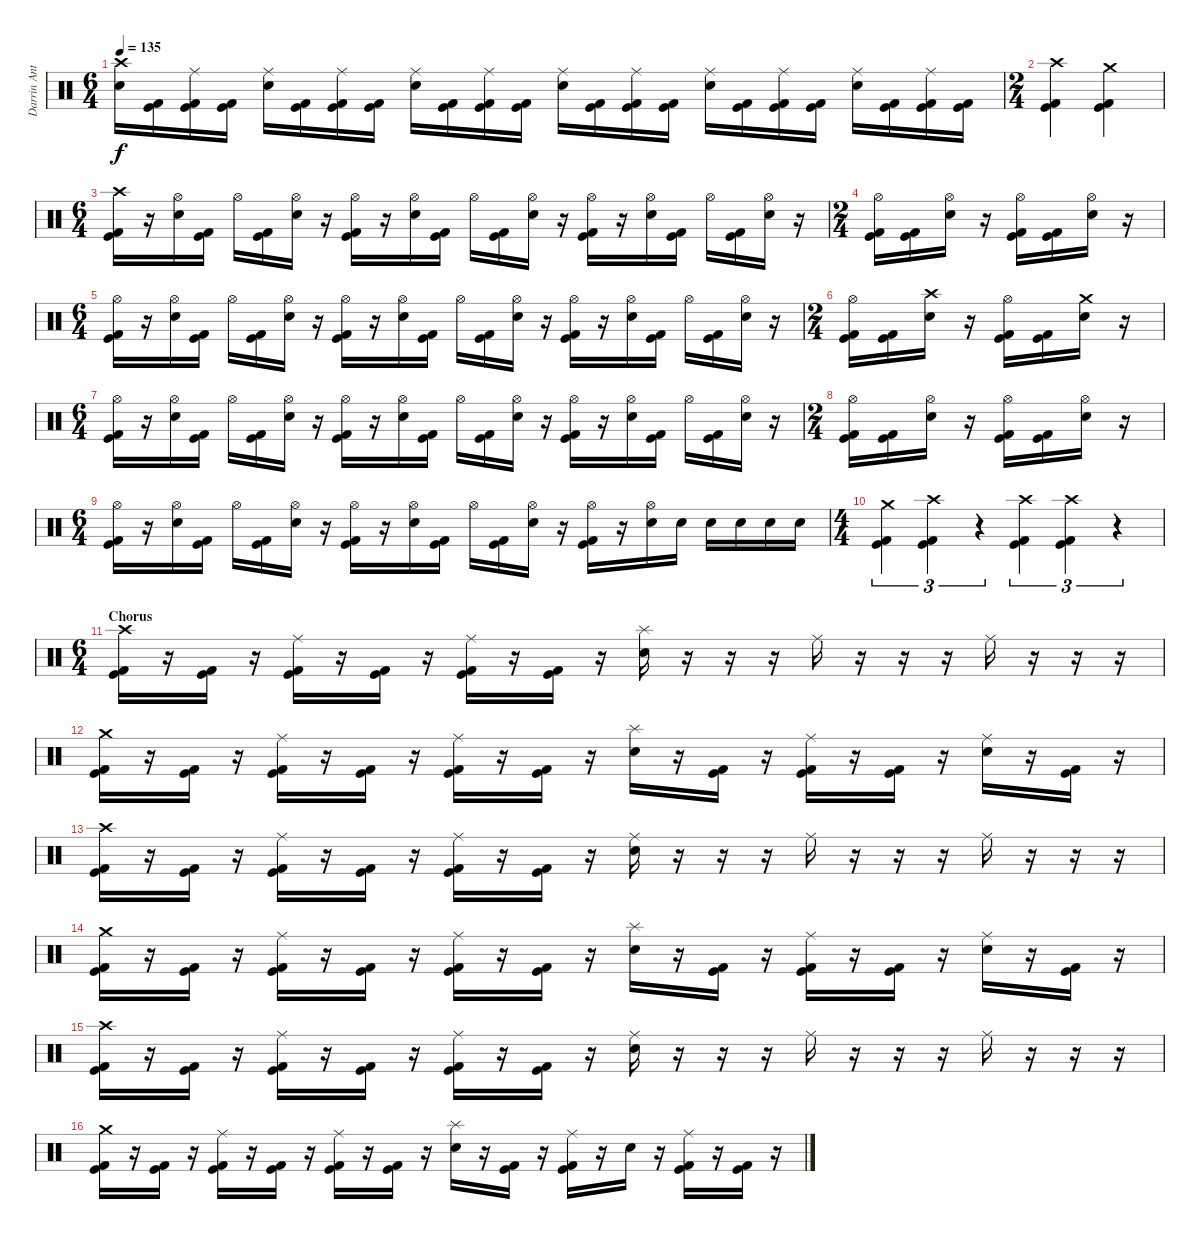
\track ("Darrin Anthony" "Darrin Ant") {instrument percussion}
\staff {score}
\articulation defaults
\ts (6 4)
\tempo 135
\clef neutral
\ks c
("Crash high (hit)" "Electric Snare (hit)").16{dy f} ("Kick (hit)" "Kick (hit) 2").16 ("Ride (middle)" "Kick (hit)" "Kick (hit) 2").16 ("Kick (hit)" "Kick (hit) 2").16 ("Ride (middle)" "Electric Snare (hit)").16 ("Kick (hit)" "Kick (hit) 2").16 ("Ride (middle)" "Kick (hit)" "Kick (hit) 2").16 ("Kick (hit)" "Kick (hit) 2").16 ("Ride (middle)" "Electric Snare (hit)").16 ("Kick (hit)" "Kick (hit) 2").16 ("Ride (middle)" "Kick (hit)" "Kick (hit) 2").16 ("Kick (hit)" "Kick (hit) 2").16 ("Ride (middle)" "Electric Snare (hit)").16 ("Kick (hit)" "Kick (hit) 2").16 ("Ride (middle)" "Kick (hit)" "Kick (hit) 2").16 ("Kick (hit)" "Kick (hit) 2").16 ("Ride (middle)" "Electric Snare (hit)").16 ("Kick (hit)" "Kick (hit) 2").16 ("Ride (middle)" "Kick (hit)" "Kick (hit) 2").16 ("Kick (hit)" "Kick (hit) 2").16 ("Ride (middle)" "Electric Snare (hit)").16 ("Kick (hit)" "Kick (hit) 2").16 ("Ride (middle)" "Kick (hit)" "Kick (hit) 2").16 ("Kick (hit)" "Kick (hit) 2").16 |
\ts (2 4)
("Crash high (hit)" "Kick (hit)" "Kick (hit) 2").4 ("Crash medium (hit)" "Kick (hit)" "Kick (hit) 2").4 |
\ts (6 4)
("Crash high (hit)" "Kick (hit)" "Kick (hit) 2").16 r.16 ("Hi-Hat (open)" "Electric Snare (hit)").16 ("Kick (hit)" "Kick (hit) 2").16 "Hi-Hat (open)".16 ("Kick (hit)" "Kick (hit) 2").16 ("Hi-Hat (open)" "Electric Snare (hit)").16 r.16 ("Hi-Hat (open)" "Kick (hit)" "Kick (hit) 2").16 r.16 ("Hi-Hat (open)" "Electric Snare (hit)").16 ("Kick (hit)" "Kick (hit) 2").16 "Hi-Hat (open)".16 ("Kick (hit)" "Kick (hit) 2").16 ("Hi-Hat (open)" "Electric Snare (hit)").16 r.16 ("Hi-Hat (open)" "Kick (hit)" "Kick (hit) 2").16 r.16 ("Hi-Hat (open)" "Electric Snare (hit)").16 ("Kick (hit)" "Kick (hit) 2").16 "Hi-Hat (open)".16 ("Kick (hit)" "Kick (hit) 2").16 ("Hi-Hat (open)" "Electric Snare (hit)").16 r.16 |
\ts (2 4)
("Hi-Hat (open)" "Kick (hit)" "Kick (hit) 2").16 ("Kick (hit)" "Kick (hit) 2").16 ("Hi-Hat (open)" "Electric Snare (hit)").16 r.16 ("Hi-Hat (open)" "Kick (hit)" "Kick (hit) 2").16 ("Kick (hit)" "Kick (hit) 2").16 ("Hi-Hat (open)" "Electric Snare (hit)").16 r.16 |
\ts (6 4)
("Hi-Hat (open)" "Kick (hit)" "Kick (hit) 2").16 r.16 ("Hi-Hat (open)" "Electric Snare (hit)").16 ("Kick (hit)" "Kick (hit) 2").16 "Hi-Hat (open)".16 ("Kick (hit)" "Kick (hit) 2").16 ("Hi-Hat (open)" "Electric Snare (hit)").16 r.16 ("Hi-Hat (open)" "Kick (hit)" "Kick (hit) 2").16 r.16 ("Hi-Hat (open)" "Electric Snare (hit)").16 ("Kick (hit)" "Kick (hit) 2").16 "Hi-Hat (open)".16 ("Kick (hit)" "Kick (hit) 2").16 ("Hi-Hat (open)" "Electric Snare (hit)").16 r.16 ("Hi-Hat (open)" "Kick (hit)" "Kick (hit) 2").16 r.16 ("Hi-Hat (open)" "Electric Snare (hit)").16 ("Kick (hit)" "Kick (hit) 2").16 "Hi-Hat (open)".16 ("Kick (hit)" "Kick (hit) 2").16 ("Hi-Hat (open)" "Electric Snare (hit)").16 r.16 |
\ts (2 4)
("Hi-Hat (open)" "Kick (hit)" "Kick (hit) 2").16 ("Kick (hit)" "Kick (hit) 2").16 ("Crash high (hit)" "Electric Snare (hit)").16 r.16 ("Hi-Hat (open)" "Kick (hit)" "Kick (hit) 2").16 ("Kick (hit)" "Kick (hit) 2").16 ("Crash medium (hit)" "Electric Snare (hit)").16 r.16 |
\ts (6 4)
("Hi-Hat (open)" "Kick (hit)" "Kick (hit) 2").16 r.16 ("Hi-Hat (open)" "Electric Snare (hit)").16 ("Kick (hit)" "Kick (hit) 2").16 "Hi-Hat (open)".16 ("Kick (hit)" "Kick (hit) 2").16 ("Hi-Hat (open)" "Electric Snare (hit)").16 r.16 ("Hi-Hat (open)" "Kick (hit)" "Kick (hit) 2").16 r.16 ("Hi-Hat (open)" "Electric Snare (hit)").16 ("Kick (hit)" "Kick (hit) 2").16 "Hi-Hat (open)".16 ("Kick (hit)" "Kick (hit) 2").16 ("Hi-Hat (open)" "Electric Snare (hit)").16 r.16 ("Hi-Hat (open)" "Kick (hit)" "Kick (hit) 2").16 r.16 ("Hi-Hat (open)" "Electric Snare (hit)").16 ("Kick (hit)" "Kick (hit) 2").16 "Hi-Hat (open)".16 ("Kick (hit)" "Kick (hit) 2").16 ("Hi-Hat (open)" "Electric Snare (hit)").16 r.16 |
\ts (2 4)
("Hi-Hat (open)" "Kick (hit)" "Kick (hit) 2").16 ("Kick (hit)" "Kick (hit) 2").16 ("Hi-Hat (open)" "Electric Snare (hit)").16 r.16 ("Hi-Hat (open)" "Kick (hit)" "Kick (hit) 2").16 ("Kick (hit)" "Kick (hit) 2").16 ("Hi-Hat (open)" "Electric Snare (hit)").16 r.16 |
\ts (6 4)
("Hi-Hat (open)" "Kick (hit)" "Kick (hit) 2").16 r.16 ("Hi-Hat (open)" "Electric Snare (hit)").16 ("Kick (hit)" "Kick (hit) 2").16 "Hi-Hat (open)".16 ("Kick (hit)" "Kick (hit) 2").16 ("Hi-Hat (open)" "Electric Snare (hit)").16 r.16 ("Hi-Hat (open)" "Kick (hit)" "Kick (hit) 2").16 r.16 ("Hi-Hat (open)" "Electric Snare (hit)").16 ("Kick (hit)" "Kick (hit) 2").16 "Hi-Hat (open)".16 ("Kick (hit)" "Kick (hit) 2").16 ("Hi-Hat (open)" "Electric Snare (hit)").16 r.16 ("Hi-Hat (open)" "Kick (hit)" "Kick (hit) 2").16 r.16 ("Hi-Hat (open)" "Electric Snare (hit)").16 "Electric Snare (hit)".16 "Electric Snare (hit)".16 "Electric Snare (hit)".16 "Electric Snare (hit)".16 "Electric Snare (hit)".16 |
\ts (4 4)
("Crash medium (hit)" "Kick (hit)" "Kick (hit) 2").4{tu (3 2)} ("Crash high (hit)" "Kick (hit)" "Kick (hit) 2").4{tu (3 2)} r.4{tu (3 2)} ("Crash high (hit)" "Kick (hit)" "Kick (hit) 2").4{tu (3 2)} ("Crash high (hit)" "Kick (hit)" "Kick (hit) 2").4{tu (3 2)} r.4{tu (3 2)} |
\ts (6 4)
\section ("" "Chorus")
("Crash high (hit)" "Kick (hit)" "Kick (hit) 2").16 r.16 ("Kick (hit)" "Kick (hit) 2").16 r.16 ("Ride (middle)" "Kick (hit)" "Kick (hit) 2").16 r.16 ("Kick (hit)" "Kick (hit) 2").16 r.16 ("Ride (middle)" "Kick (hit)" "Kick (hit) 2").16 r.16 ("Kick (hit)" "Kick (hit) 2").16 r.16 ("Splash (hit)" "Electric Snare (hit)").16 r.16 r.16 r.16 "Ride (middle)".16 r.16 r.16 r.16 "Ride (middle)".16 r.16 r.16 r.16 |
("Crash medium (hit)" "Kick (hit)" "Kick (hit) 2").16 r.16 ("Kick (hit)" "Kick (hit) 2").16 r.16 ("Ride (middle)" "Kick (hit)" "Kick (hit) 2").16 r.16 ("Kick (hit)" "Kick (hit) 2").16 r.16 ("Ride (middle)" "Kick (hit)" "Kick (hit) 2").16 r.16 ("Kick (hit)" "Kick (hit) 2").16 r.16 ("Splash (hit)" "Electric Snare (hit)").16 r.16 ("Kick (hit)" "Kick (hit) 2").16 r.16 ("Ride (middle)" "Kick (hit)" "Kick (hit) 2").16 r.16 ("Kick (hit)" "Kick (hit) 2").16 r.16 ("Ride (middle)" "Electric Snare (hit)").16 r.16 ("Kick (hit)" "Kick (hit) 2").16 r.16 |
("Crash high (hit)" "Kick (hit)" "Kick (hit) 2").16 r.16 ("Kick (hit)" "Kick (hit) 2").16 r.16 ("Ride (middle)" "Kick (hit)" "Kick (hit) 2").16 r.16 ("Kick (hit)" "Kick (hit) 2").16 r.16 ("Ride (middle)" "Kick (hit)" "Kick (hit) 2").16 r.16 ("Kick (hit)" "Kick (hit) 2").16 r.16 ("Ride (middle)" "Electric Snare (hit)").16 r.16 r.16 r.16 "Ride (middle)".16 r.16 r.16 r.16 "Ride (middle)".16 r.16 r.16 r.16 |
("Crash medium (hit)" "Kick (hit)" "Kick (hit) 2").16 r.16 ("Kick (hit)" "Kick (hit) 2").16 r.16 ("Ride (middle)" "Kick (hit)" "Kick (hit) 2").16 r.16 ("Kick (hit)" "Kick (hit) 2").16 r.16 ("Ride (middle)" "Kick (hit)" "Kick (hit) 2").16 r.16 ("Kick (hit)" "Kick (hit) 2").16 r.16 ("Splash (hit)" "Electric Snare (hit)").16 r.16 ("Kick (hit)" "Kick (hit) 2").16 r.16 ("Ride (middle)" "Kick (hit)" "Kick (hit) 2").16 r.16 ("Kick (hit)" "Kick (hit) 2").16 r.16 ("Ride (middle)" "Electric Snare (hit)").16 r.16 ("Kick (hit)" "Kick (hit) 2").16 r.16 |
("Crash high (hit)" "Kick (hit)" "Kick (hit) 2").16 r.16 ("Kick (hit)" "Kick (hit) 2").16 r.16 ("Ride (middle)" "Kick (hit)" "Kick (hit) 2").16 r.16 ("Kick (hit)" "Kick (hit) 2").16 r.16 ("Ride (middle)" "Kick (hit)" "Kick (hit) 2").16 r.16 ("Kick (hit)" "Kick (hit) 2").16 r.16 ("Ride (middle)" "Electric Snare (hit)").16 r.16 r.16 r.16 "Ride (middle)".16 r.16 r.16 r.16 "Ride (middle)".16 r.16 r.16 r.16 |
("Crash medium (hit)" "Kick (hit)" "Kick (hit) 2").16 r.16 ("Kick (hit)" "Kick (hit) 2").16 r.16 ("Ride (middle)" "Kick (hit)" "Kick (hit) 2").16 r.16 ("Kick (hit)" "Kick (hit) 2").16 r.16 ("Ride (middle)" "Kick (hit)" "Kick (hit) 2").16 r.16 ("Kick (hit)" "Kick (hit) 2").16 r.16 ("Splash (hit)" "Electric Snare (hit)").16 r.16 ("Kick (hit)" "Kick (hit) 2").16 r.16 ("Ride (middle)" "Kick (hit)" "Kick (hit) 2").16 r.16 "Electric Snare (hit)".16 r.16 ("Ride (middle)" "Kick (hit)" "Kick (hit) 2").16 r.16 ("Kick (hit)" "Kick (hit) 2").16 r.16
